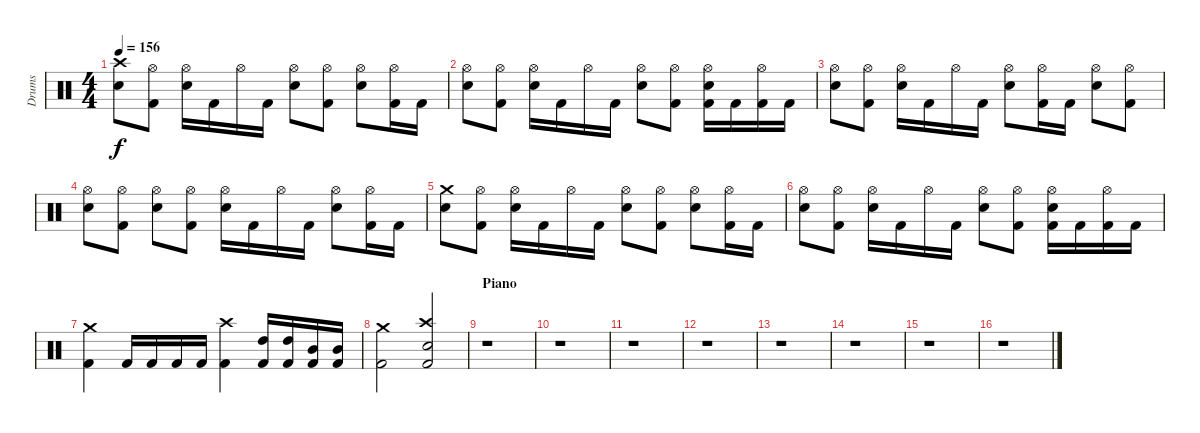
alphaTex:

\track ("Drums" "Drums") {instrument percussion}
\staff {score}
\articulation defaults
\ts (4 4)
\tempo 156
\clef neutral
\ks c
("Snare (hit) 2" "Crash high (hit)").8{dy f} ("Kick (hit) 2" "Hi-Hat (open)").8 ("Snare (hit) 2" "Hi-Hat (open)").16 "Kick (hit) 2".16 "Hi-Hat (open)".16 "Kick (hit) 2".16 ("Snare (hit) 2" "Hi-Hat (open)").8 ("Kick (hit) 2" "Hi-Hat (open)").8 ("Snare (hit) 2" "Hi-Hat (open)").8 ("Kick (hit) 2" "Hi-Hat (open)").16 "Kick (hit) 2".16 |
("Snare (hit) 2" "Hi-Hat (open)").8 ("Kick (hit) 2" "Hi-Hat (open)").8 ("Snare (hit) 2" "Hi-Hat (open)").16 "Kick (hit) 2".16 "Hi-Hat (open)".16 "Kick (hit) 2".16 ("Snare (hit) 2" "Hi-Hat (open)").8 ("Kick (hit) 2" "Hi-Hat (open)").8 ("Kick (hit) 2" "Snare (hit) 2" "Hi-Hat (open)").16 "Kick (hit) 2".16 ("Kick (hit) 2" "Hi-Hat (open)").16 "Kick (hit) 2".16 |
("Snare (hit) 2" "Hi-Hat (open)").8 ("Kick (hit) 2" "Hi-Hat (open)").8 ("Snare (hit) 2" "Hi-Hat (open)").16 "Kick (hit) 2".16 "Hi-Hat (open)".16 "Kick (hit) 2".16 ("Snare (hit) 2" "Hi-Hat (open)").8 ("Kick (hit) 2" "Hi-Hat (open)").16 "Kick (hit) 2".16 ("Snare (hit) 2" "Hi-Hat (open)").8 ("Kick (hit) 2" "Hi-Hat (open)").8 |
("Snare (hit) 2" "Hi-Hat (open)").8 ("Kick (hit) 2" "Hi-Hat (open)").8 ("Snare (hit) 2" "Hi-Hat (open)").8 ("Kick (hit) 2" "Hi-Hat (open)").8 ("Snare (hit) 2" "Hi-Hat (open)").16 "Kick (hit) 2".16 "Hi-Hat (open)".16 "Kick (hit) 2".16 ("Snare (hit) 2" "Hi-Hat (open)").8 ("Kick (hit) 2" "Hi-Hat (open)").16 "Kick (hit) 2".16 |
("Snare (hit) 2" "Crash medium (hit)").8 ("Kick (hit) 2" "Hi-Hat (open)").8 ("Snare (hit) 2" "Hi-Hat (open)").16 "Kick (hit) 2".16 "Hi-Hat (open)".16 "Kick (hit) 2".16 ("Snare (hit) 2" "Hi-Hat (open)").8 ("Kick (hit) 2" "Hi-Hat (open)").8 ("Snare (hit) 2" "Hi-Hat (open)").8 ("Kick (hit) 2" "Hi-Hat (open)").16 "Kick (hit) 2".16 |
("Snare (hit) 2" "Hi-Hat (open)").8 ("Kick (hit) 2" "Hi-Hat (open)").8 ("Snare (hit) 2" "Hi-Hat (open)").16 "Kick (hit) 2".16 "Hi-Hat (open)".16 "Kick (hit) 2".16 ("Snare (hit) 2" "Hi-Hat (open)").8 ("Kick (hit) 2" "Hi-Hat (open)").8 ("Kick (hit) 2" "Snare (hit) 2" "Hi-Hat (open)").16 "Kick (hit) 2".16 ("Kick (hit) 2" "Hi-Hat (open)").16 "Kick (hit) 2".16 |
("Kick (hit) 2" "Crash medium (hit)").4 "Kick (hit) 2".16 "Kick (hit) 2".16 "Kick (hit) 2".16 "Kick (hit) 2".16 ("Kick (hit) 2" "Crash high (hit)").4 ("Kick (hit) 2" "High Tom (hit)").16 ("Kick (hit) 2" "High Tom (hit)").16 ("Kick (hit) 2" "Mid Tom (hit)").16 ("Kick (hit) 2" "Mid Tom (hit)").16 |
("Kick (hit) 2" "Crash medium (hit)").2 ("Kick (hit) 2" "Snare (hit) 2" "Crash high (hit)").2 |
\section ("" "Piano")
r.1 |
r.1 |
r.1 |
r.1 |
r.1 |
r.1 |
r.1 |
r.1
